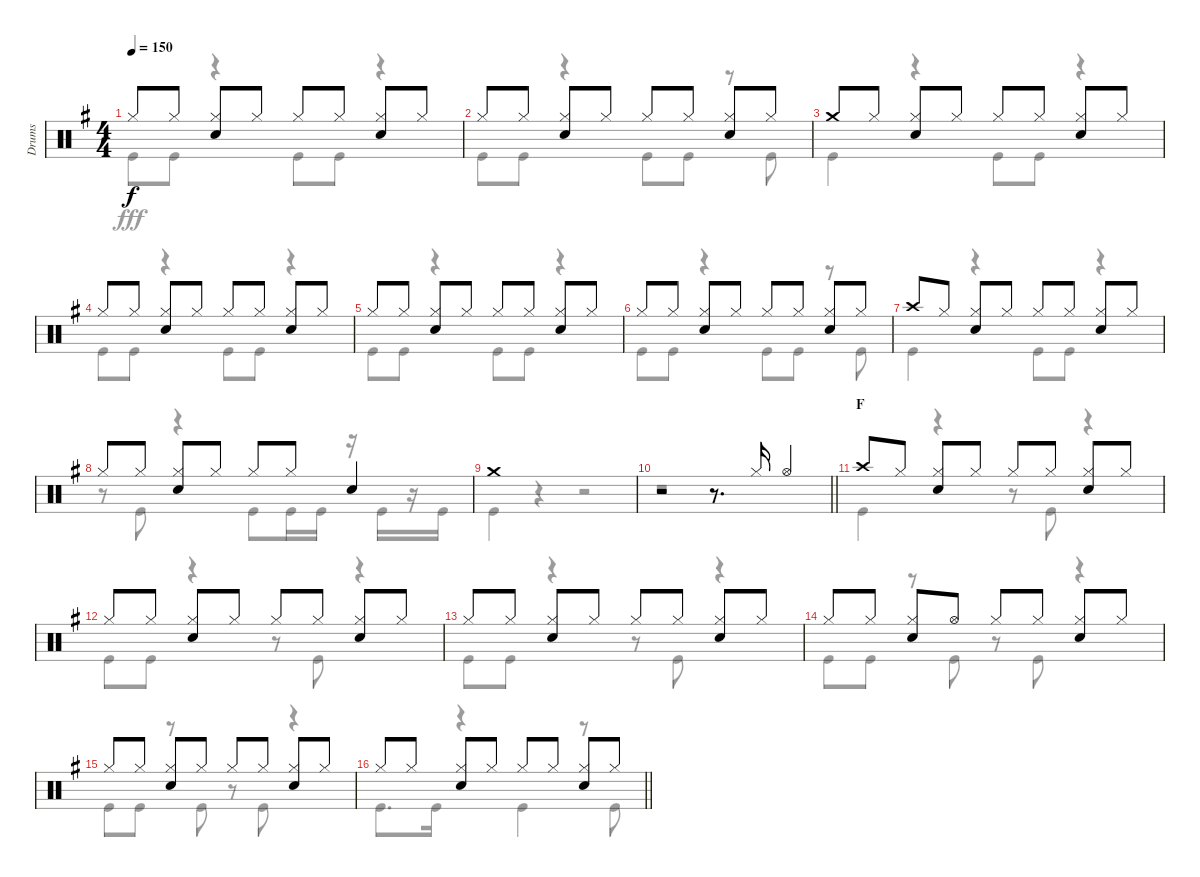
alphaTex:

\track ("Drums" "Drums") {instrument percussion}
\staff {score}
\articulation defaults
\voice
\ts (4 4)
\tempo 150
\clef neutral
\ks g "Hi-Hat (closed)".8{dy f} "Hi-Hat (closed)".8
("Hi-Hat (closed)" "Snare (hit) 2").8 "Hi-Hat (closed)".8 "Hi-Hat (closed)".8 "Hi-Hat (closed)".8 ("Hi-Hat (closed)" "Snare (hit) 2").8 "Hi-Hat (closed)".8 |
"Hi-Hat (closed)".8 "Hi-Hat (closed)".8 ("Hi-Hat (closed)" "Snare (hit) 2").8 "Hi-Hat (closed)".8 "Hi-Hat (closed)".8 "Hi-Hat (closed)".8 ("Hi-Hat (closed)" "Snare (hit) 2").8 "Hi-Hat (closed)".8 |
"Crash medium (hit)".8 "Hi-Hat (closed)".8 ("Hi-Hat (closed)" "Snare (hit) 2").8 "Hi-Hat (closed)".8 "Hi-Hat (closed)".8 "Hi-Hat (closed)".8 ("Hi-Hat (closed)" "Snare (hit) 2").8 "Hi-Hat (closed)".8 |
"Hi-Hat (closed)".8 "Hi-Hat (closed)".8 ("Hi-Hat (closed)" "Snare (hit) 2").8 "Hi-Hat (closed)".8 "Hi-Hat (closed)".8 "Hi-Hat (closed)".8 ("Hi-Hat (closed)" "Snare (hit) 2").8 "Hi-Hat (closed)".8 |
"Hi-Hat (closed)".8 "Hi-Hat (closed)".8 ("Hi-Hat (closed)" "Snare (hit) 2").8 "Hi-Hat (closed)".8 "Hi-Hat (closed)".8 "Hi-Hat (closed)".8 ("Hi-Hat (closed)" "Snare (hit) 2").8 "Hi-Hat (closed)".8 |
"Hi-Hat (closed)".8 "Hi-Hat (closed)".8 ("Hi-Hat (closed)" "Snare (hit) 2").8 "Hi-Hat (closed)".8 "Hi-Hat (closed)".8 "Hi-Hat (closed)".8 ("Hi-Hat (closed)" "Snare (hit) 2").8 "Hi-Hat (closed)".8 |
"Crash high (hit)".8 "Hi-Hat (closed)".8 ("Hi-Hat (closed)" "Snare (hit) 2").8 "Hi-Hat (closed)".8 "Hi-Hat (closed)".8 "Hi-Hat (closed)".8 ("Hi-Hat (closed)" "Snare (hit) 2").8 "Hi-Hat (closed)".8 |
"Hi-Hat (closed)".8 "Hi-Hat (closed)".8 ("Hi-Hat (closed)" "Snare (hit) 2").8 "Hi-Hat (closed)".8 "Hi-Hat (closed)".8 "Hi-Hat (closed)".8 "Snare (hit) 2".4 |
"Crash medium (hit)".1 |
\barLineRight lightlight
r.2 r.8{d} "Hi-Hat (closed)".16 "Hi-Hat (open)".4 |
\section ("" "F")
"Crash high (hit)".8 "Hi-Hat (closed)".8 ("Hi-Hat (closed)" "Snare (hit) 2").8 "Hi-Hat (closed)".8 "Hi-Hat (closed)".8 "Hi-Hat (closed)".8 ("Hi-Hat (closed)" "Snare (hit) 2").8 "Hi-Hat (closed)".8 |
"Hi-Hat (closed)".8 "Hi-Hat (closed)".8 ("Hi-Hat (closed)" "Snare (hit) 2").8 "Hi-Hat (closed)".8 "Hi-Hat (closed)".8 "Hi-Hat (closed)".8 ("Hi-Hat (closed)" "Snare (hit) 2").8 "Hi-Hat (closed)".8 |
"Hi-Hat (closed)".8 "Hi-Hat (closed)".8 ("Hi-Hat (closed)" "Snare (hit) 2").8 "Hi-Hat (closed)".8 "Hi-Hat (closed)".8 "Hi-Hat (closed)".8 ("Hi-Hat (closed)" "Snare (hit) 2").8 "Hi-Hat (closed)".8 |
"Hi-Hat (closed)".8 "Hi-Hat (closed)".8 ("Hi-Hat (closed)" "Snare (hit) 2").8 "Hi-Hat (open)".8 "Hi-Hat (closed)".8 "Hi-Hat (closed)".8 ("Hi-Hat (closed)" "Snare (hit) 2").8 "Hi-Hat (closed)".8 |
"Hi-Hat (closed)".8 "Hi-Hat (closed)".8 ("Hi-Hat (closed)" "Snare (hit) 2").8 "Hi-Hat (closed)".8 "Hi-Hat (closed)".8 "Hi-Hat (closed)".8 ("Hi-Hat (closed)" "Snare (hit) 2").8 "Hi-Hat (closed)".8 |
\barLineRight lightlight "Hi-Hat (closed)".8 "Hi-Hat (closed)".8
("Hi-Hat (closed)" "Snare (hit) 2").8 "Hi-Hat (closed)".8 "Hi-Hat (closed)".8 "Hi-Hat (closed)".8 ("Hi-Hat (closed)" "Snare (hit) 2").8 "Hi-Hat (closed)".8
\voice
\clef neutral
\ottava regular
\simile none
\ks g "Kick (hit)".8{dy fff} "Kick (hit)".8
r.4 "Kick (hit)".8 "Kick (hit)".8 r.4 |
"Kick (hit)".8 "Kick (hit)".8 r.4 "Kick (hit)".8 "Kick (hit)".8 r.8 "Kick (hit)".8 |
"Kick (hit)".4 r.4 "Kick (hit)".8 "Kick (hit)".8 r.4 |
"Kick (hit)".8 "Kick (hit)".8 r.4 "Kick (hit)".8 "Kick (hit)".8 r.4 |
"Kick (hit)".8 "Kick (hit)".8 r.4 "Kick (hit)".8 "Kick (hit)".8 r.4 |
"Kick (hit)".8 "Kick (hit)".8 r.4 "Kick (hit)".8 "Kick (hit)".8 r.8 "Kick (hit)".8 |
"Kick (hit)".4 r.4 "Kick (hit)".8 "Kick (hit)".8 r.4 |
r.8 "Kick (hit)".8 r.4 "Kick (hit)".8 "Kick (hit)".16 "Kick (hit)".16 r.16 "Kick (hit)".16 r.16 "Kick (hit)".16 |
"Kick (hit)".4 r.4 r.2 |
\barLineRight lightlight
r.1 |
"Kick (hit)".4 r.4 r.8 "Kick (hit)".8 r.4 |
"Kick (hit)".8 "Kick (hit)".8 r.4 r.8 "Kick (hit)".8 r.4 |
"Kick (hit)".8 "Kick (hit)".8 r.4 r.8 "Kick (hit)".8 r.4 |
"Kick (hit)".8 "Kick (hit)".8 r.8 "Kick (hit)".8 r.8 "Kick (hit)".8 r.4 |
"Kick (hit)".8 "Kick (hit)".8 r.8 "Kick (hit)".8 r.8 "Kick (hit)".8 r.4 |
\barLineRight lightlight "Kick (hit)".8{d} "Kick (hit)".16
r.4 "Kick (hit)".4 r.8 "Kick (hit)".8
